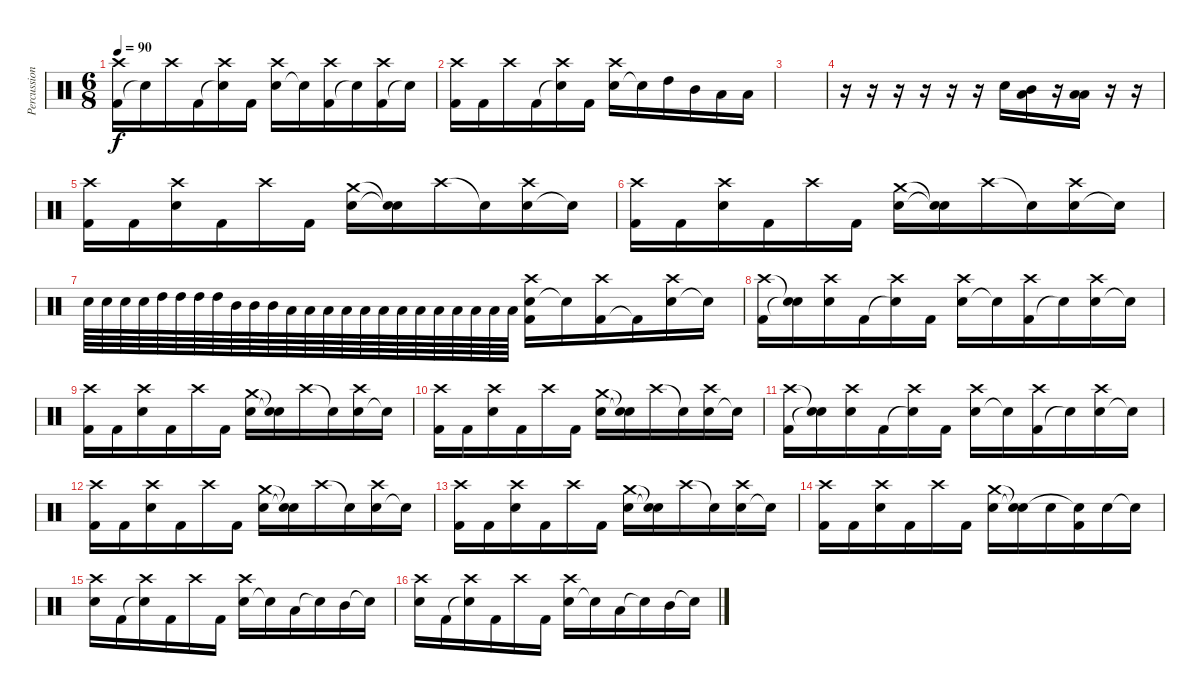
\track ("Percussions" "Percussion") {instrument percussion}
\staff {score}
\articulation defaults
\ts (6 8)
\tempo 90
\clef neutral
\ks c
("Kick (hit) 2" "Crash high (hit)").16{dy f} "Snare (hit)"{t}.16 "Crash high (hit)".16 "Kick (hit) 2".16 ("Snare (hit)"{t} "Crash high (hit)").16 "Kick (hit) 2".16 ("Snare (hit) 2" "Crash high (hit)").16 "Snare (hit)"{t}.16 ("Kick (hit) 2" "Crash high (hit)").16 "Snare (hit)"{t}.16 ("Kick (hit) 2" "Crash high (hit)").16 "Snare (hit)"{t}.16 |
("Kick (hit) 2" "Crash high (hit)").16 "Kick (hit) 2".16 "Crash high (hit)".16 "Kick (hit) 2".16 ("Snare (hit)"{t} "Crash high (hit)").16 "Kick (hit) 2".16 ("Snare (hit) 2" "Crash high (hit)").16 "Snare (hit)"{t}.16 "High Tom (hit)".16 "Mid Tom (hit)".16 "Low Tom (hit)".16 "Low Floor Tom (hit)".16 |
|
r.16 r.16 r.16 r.16 r.16 r.16 "Snare (hit) 2".16 ("Mid Tom (hit)" "Low Tom (hit)").16 r.16 ("Low Tom (hit)" "Low Floor Tom (hit)").16 r.16 r.16 |
("Kick (hit) 2" "Crash high (hit)").16 "Kick (hit) 2".16 ("Snare (hit) 2" "Crash high (hit)").16 "Kick (hit) 2".16 "Crash high (hit)".16 "Kick (hit) 2".16 ("Snare (hit) 2" "Crash medium (hit)").16 ("Snare (hit)"{t} "Snare (hit)"{t}).16 "Crash high (hit)".16 "Snare (hit)"{t}.16 ("Snare (hit) 2" "Crash high (hit)").16 "Snare (hit)"{t}.16 |
("Kick (hit) 2" "Crash high (hit)").16 "Kick (hit) 2".16 ("Snare (hit) 2" "Crash high (hit)").16 "Kick (hit) 2".16 "Crash high (hit)".16 "Kick (hit) 2".16 ("Snare (hit) 2" "Crash medium (hit)").16 ("Snare (hit)"{t} "Snare (hit)"{t}).16 "Crash high (hit)".16 "Snare (hit)"{t}.16 ("Snare (hit) 2" "Crash high (hit)").16 "Snare (hit)"{t}.16 |
"Snare (hit) 2".64 "Snare (hit) 2".64 "Snare (hit) 2".64 "Snare (hit) 2".64 "High Tom (hit)".64 "High Tom (hit)".64 "High Tom (hit)".64 "High Tom (hit)".64 "Mid Tom (hit)".64 "Mid Tom (hit)".64 "Mid Tom (hit)".64 "Low Tom (hit)".64 "Low Tom (hit)".64 "Low Tom (hit)".64 "Low Floor Tom (hit)".64 "Low Floor Tom (hit)".64 "Low Floor Tom (hit)".64 "Low Floor Tom (hit)".64 "Low Floor Tom (hit)".64 "Low Floor Tom (hit)".64 "Low Floor Tom (hit)".64 "Low Floor Tom (hit)".64 "Low Floor Tom (hit)".64 "Low Floor Tom (hit)".64 ("Snare (hit) 2" "Kick (hit) 2" "Crash high (hit)").16 "Snare (hit)"{t}.16 ("Kick (hit) 2" "Crash high (hit)").16 "Kick (hit) 2"{t}.16 ("Snare (hit) 2" "Crash high (hit)").16 "Snare (hit)"{t}.16 |
("Kick (hit) 2" "Crash high (hit)").16 ("Snare (hit)"{t} "Snare (hit)"{t}).16 ("Snare (hit) 2" "Crash high (hit)").16 "Kick (hit) 2".16 ("Snare (hit)"{t} "Crash high (hit)").16 "Kick (hit) 2".16 ("Snare (hit) 2" "Crash high (hit)").16 "Snare (hit)"{t}.16 ("Kick (hit) 2" "Crash high (hit)").16 "Snare (hit)"{t}.16 ("Snare (hit) 2" "Crash high (hit)").16 "Snare (hit)"{t}.16 |
("Kick (hit) 2" "Crash high (hit)").16 "Kick (hit) 2".16 ("Snare (hit) 2" "Crash high (hit)").16 "Kick (hit) 2".16 "Crash high (hit)".16 "Kick (hit) 2".16 ("Snare (hit) 2" "Crash medium (hit)").16 ("Snare (hit)"{t} "Snare (hit)"{t}).16 "Crash high (hit)".16 "Snare (hit)"{t}.16 ("Snare (hit) 2" "Crash high (hit)").16 "Snare (hit)"{t}.16 |
("Kick (hit) 2" "Crash high (hit)").16 "Kick (hit) 2".16 ("Snare (hit) 2" "Crash high (hit)").16 "Kick (hit) 2".16 "Crash high (hit)".16 "Kick (hit) 2".16 ("Snare (hit) 2" "Crash medium (hit)").16 ("Snare (hit)"{t} "Snare (hit)"{t}).16 "Crash high (hit)".16 "Snare (hit)"{t}.16 ("Snare (hit) 2" "Crash high (hit)").16 "Snare (hit)"{t}.16 |
("Kick (hit) 2" "Crash high (hit)").16 ("Snare (hit)"{t} "Snare (hit)"{t}).16 ("Snare (hit) 2" "Crash high (hit)").16 "Kick (hit) 2".16 ("Snare (hit)"{t} "Crash high (hit)").16 "Kick (hit) 2".16 ("Snare (hit) 2" "Crash high (hit)").16 "Snare (hit)"{t}.16 ("Kick (hit) 2" "Crash high (hit)").16 "Snare (hit)"{t}.16 ("Snare (hit) 2" "Crash high (hit)").16 "Snare (hit)"{t}.16 |
("Kick (hit) 2" "Crash high (hit)").16 "Kick (hit) 2".16 ("Snare (hit) 2" "Crash high (hit)").16 "Kick (hit) 2".16 "Crash high (hit)".16 "Kick (hit) 2".16 ("Snare (hit) 2" "Crash medium (hit)").16 ("Snare (hit)"{t} "Snare (hit)"{t}).16 "Crash high (hit)".16 "Snare (hit)"{t}.16 ("Snare (hit) 2" "Crash high (hit)").16 "Snare (hit)"{t}.16 |
("Kick (hit) 2" "Crash high (hit)").16 "Kick (hit) 2".16 ("Snare (hit) 2" "Crash high (hit)").16 "Kick (hit) 2".16 "Crash high (hit)".16 "Kick (hit) 2".16 ("Snare (hit) 2" "Crash medium (hit)").16 ("Snare (hit)"{t} "Snare (hit)"{t}).16 "Crash high (hit)".16 "Snare (hit)"{t}.16 ("Snare (hit) 2" "Crash high (hit)").16 "Snare (hit)"{t}.16 |
("Kick (hit) 2" "Crash high (hit)").16 "Kick (hit) 2".16 ("Snare (hit) 2" "Crash high (hit)").16 "Kick (hit) 2".16 "Crash high (hit)".16 "Kick (hit) 2".16 ("Snare (hit) 2" "Crash medium (hit)").16 ("Snare (hit)"{t} "Snare (hit)"{t}).16 "Snare (hit) 2".16 ("Kick (hit) 2" "Snare (hit)"{t}).16 "Snare (hit) 2".16 "Snare (hit)"{t}.16 |
("Snare (hit) 2" "Crash high (hit)").16 "Kick (hit) 2".16 ("Snare (hit)"{t} "Crash high (hit)").16 "Kick (hit) 2".16 "Crash high (hit)".16 "Kick (hit) 2".16 ("Snare (hit) 2" "Crash high (hit)").16 "Snare (hit)"{t}.16 "Low Tom (hit)".16 "Snare (hit)"{t}.16 "Mid Tom (hit)".16 "Snare (hit)"{t}.16 |
("Snare (hit) 2" "Crash high (hit)").16 "Kick (hit) 2".16 ("Snare (hit)"{t} "Crash high (hit)").16 "Kick (hit) 2".16 "Crash high (hit)".16 "Kick (hit) 2".16 ("Snare (hit) 2" "Crash high (hit)").16 "Snare (hit)"{t}.16 "Low Tom (hit)".16 "Snare (hit)"{t}.16 "Mid Tom (hit)".16 "Snare (hit)"{t}.16
